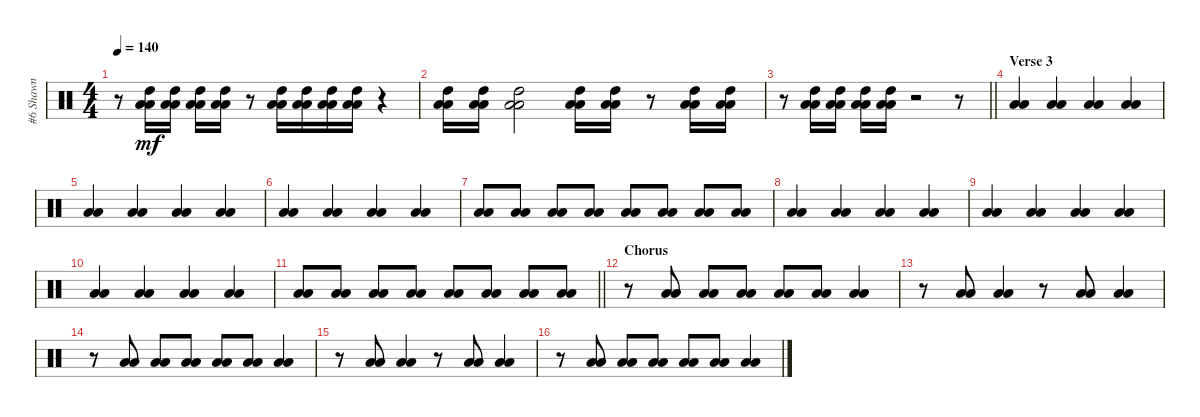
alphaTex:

\track ("#6 Shawn" "#6 Shawn") {solo instrument percussion}
\staff {score}
\articulation defaults
\ts (4 4)
\tempo 140
\clef neutral
\ks c
r.8{dy mf} ("High Tom (hit)" "Low Tom (hit)" "Low Floor Tom (hit)").16 ("High Tom (hit)" "Low Tom (hit)" "Low Floor Tom (hit)").16 ("High Tom (hit)" "Low Tom (hit)" "Low Floor Tom (hit)").16 ("High Tom (hit)" "Low Tom (hit)" "Low Floor Tom (hit)").16 r.8 ("High Tom (hit)" "Low Tom (hit)" "Low Floor Tom (hit)").16 ("High Tom (hit)" "Low Tom (hit)" "Low Floor Tom (hit)").16 ("High Tom (hit)" "Low Tom (hit)" "Low Floor Tom (hit)").16 ("High Tom (hit)" "Low Tom (hit)" "Low Floor Tom (hit)").16 r.4 |
("High Tom (hit)" "Low Tom (hit)" "Low Floor Tom (hit)").16 ("High Tom (hit)" "Low Tom (hit)" "Low Floor Tom (hit)").16 ("High Tom (hit)" "Low Tom (hit)" "Low Floor Tom (hit)").2 ("High Tom (hit)" "Low Tom (hit)" "Low Floor Tom (hit)").16 ("High Tom (hit)" "Low Tom (hit)" "Low Floor Tom (hit)").16 r.8 ("High Tom (hit)" "Low Tom (hit)" "Low Floor Tom (hit)").16 ("High Tom (hit)" "Low Tom (hit)" "Low Floor Tom (hit)").16 |
\barLineRight lightlight
r.8 ("High Tom (hit)" "Low Tom (hit)" "Low Floor Tom (hit)").16 ("High Tom (hit)" "Low Tom (hit)" "Low Floor Tom (hit)").16 ("High Tom (hit)" "Low Tom (hit)" "Low Floor Tom (hit)").16 ("High Tom (hit)" "Low Tom (hit)" "Low Floor Tom (hit)").16 r.2 r.8 |
\section ("" "Verse 3")
("Low Floor Tom (hit)" "Low Floor Tom (hit)").4 ("Low Tom (hit)" "Low Tom (hit)").4 ("Low Floor Tom (hit)" "Low Floor Tom (hit)").4 ("Low Tom (hit)" "Low Tom (hit)").4 |
("Low Floor Tom (hit)" "Low Floor Tom (hit)").4 ("Low Tom (hit)" "Low Tom (hit)").4 ("Low Floor Tom (hit)" "Low Floor Tom (hit)").4 ("Low Tom (hit)" "Low Tom (hit)").4 |
("Low Floor Tom (hit)" "Low Floor Tom (hit)").4 ("Low Tom (hit)" "Low Tom (hit)").4 ("Low Floor Tom (hit)" "Low Floor Tom (hit)").4 ("Low Tom (hit)" "Low Tom (hit)").4 |
("Low Tom (hit)" "Low Floor Tom (hit)").8 ("Low Tom (hit)" "Low Floor Tom (hit)").8 ("Low Tom (hit)" "Low Floor Tom (hit)").8 ("Low Tom (hit)" "Low Floor Tom (hit)").8 ("Low Tom (hit)" "Low Floor Tom (hit)").8 ("Low Tom (hit)" "Low Floor Tom (hit)").8 ("Low Tom (hit)" "Low Floor Tom (hit)").8 ("Low Tom (hit)" "Low Floor Tom (hit)").8 |
("Low Floor Tom (hit)" "Low Floor Tom (hit)").4 ("Low Tom (hit)" "Low Tom (hit)").4 ("Low Floor Tom (hit)" "Low Floor Tom (hit)").4 ("Low Tom (hit)" "Low Tom (hit)").4 |
("Low Floor Tom (hit)" "Low Floor Tom (hit)").4 ("Low Tom (hit)" "Low Tom (hit)").4 ("Low Floor Tom (hit)" "Low Floor Tom (hit)").4 ("Low Tom (hit)" "Low Tom (hit)").4 |
("Low Floor Tom (hit)" "Low Floor Tom (hit)").4 ("Low Tom (hit)" "Low Tom (hit)").4 ("Low Floor Tom (hit)" "Low Floor Tom (hit)").4 ("Low Tom (hit)" "Low Tom (hit)").4 |
\barLineRight lightlight
("Low Tom (hit)" "Low Floor Tom (hit)").8 ("Low Tom (hit)" "Low Floor Tom (hit)").8 ("Low Tom (hit)" "Low Floor Tom (hit)").8 ("Low Tom (hit)" "Low Floor Tom (hit)").8 ("Low Tom (hit)" "Low Floor Tom (hit)").8 ("Low Tom (hit)" "Low Floor Tom (hit)").8 ("Low Tom (hit)" "Low Floor Tom (hit)").8 ("Low Tom (hit)" "Low Floor Tom (hit)").8 |
\section ("" "Chorus")
r.8 ("Low Tom (hit)" "Low Floor Tom (hit)").8 ("Low Tom (hit)" "Low Floor Tom (hit)").8 ("Low Tom (hit)" "Low Floor Tom (hit)").8 ("Low Tom (hit)" "Low Floor Tom (hit)").8 ("Low Tom (hit)" "Low Floor Tom (hit)").8 ("Low Tom (hit)" "Low Floor Tom (hit)").4 |
r.8 ("Low Tom (hit)" "Low Floor Tom (hit)").8 ("Low Tom (hit)" "Low Floor Tom (hit)").4 r.8 ("Low Tom (hit)" "Low Floor Tom (hit)").8 ("Low Tom (hit)" "Low Floor Tom (hit)").4 |
r.8 ("Low Tom (hit)" "Low Floor Tom (hit)").8 ("Low Tom (hit)" "Low Floor Tom (hit)").8 ("Low Tom (hit)" "Low Floor Tom (hit)").8 ("Low Tom (hit)" "Low Floor Tom (hit)").8 ("Low Tom (hit)" "Low Floor Tom (hit)").8 ("Low Tom (hit)" "Low Floor Tom (hit)").4 |
r.8 ("Low Tom (hit)" "Low Floor Tom (hit)").8 ("Low Tom (hit)" "Low Floor Tom (hit)").4 r.8 ("Low Tom (hit)" "Low Floor Tom (hit)").8 ("Low Tom (hit)" "Low Floor Tom (hit)").4 |
r.8 ("Low Tom (hit)" "Low Floor Tom (hit)").8 ("Low Tom (hit)" "Low Floor Tom (hit)").8 ("Low Tom (hit)" "Low Floor Tom (hit)").8 ("Low Tom (hit)" "Low Floor Tom (hit)").8 ("Low Tom (hit)" "Low Floor Tom (hit)").8 ("Low Tom (hit)" "Low Floor Tom (hit)").4
